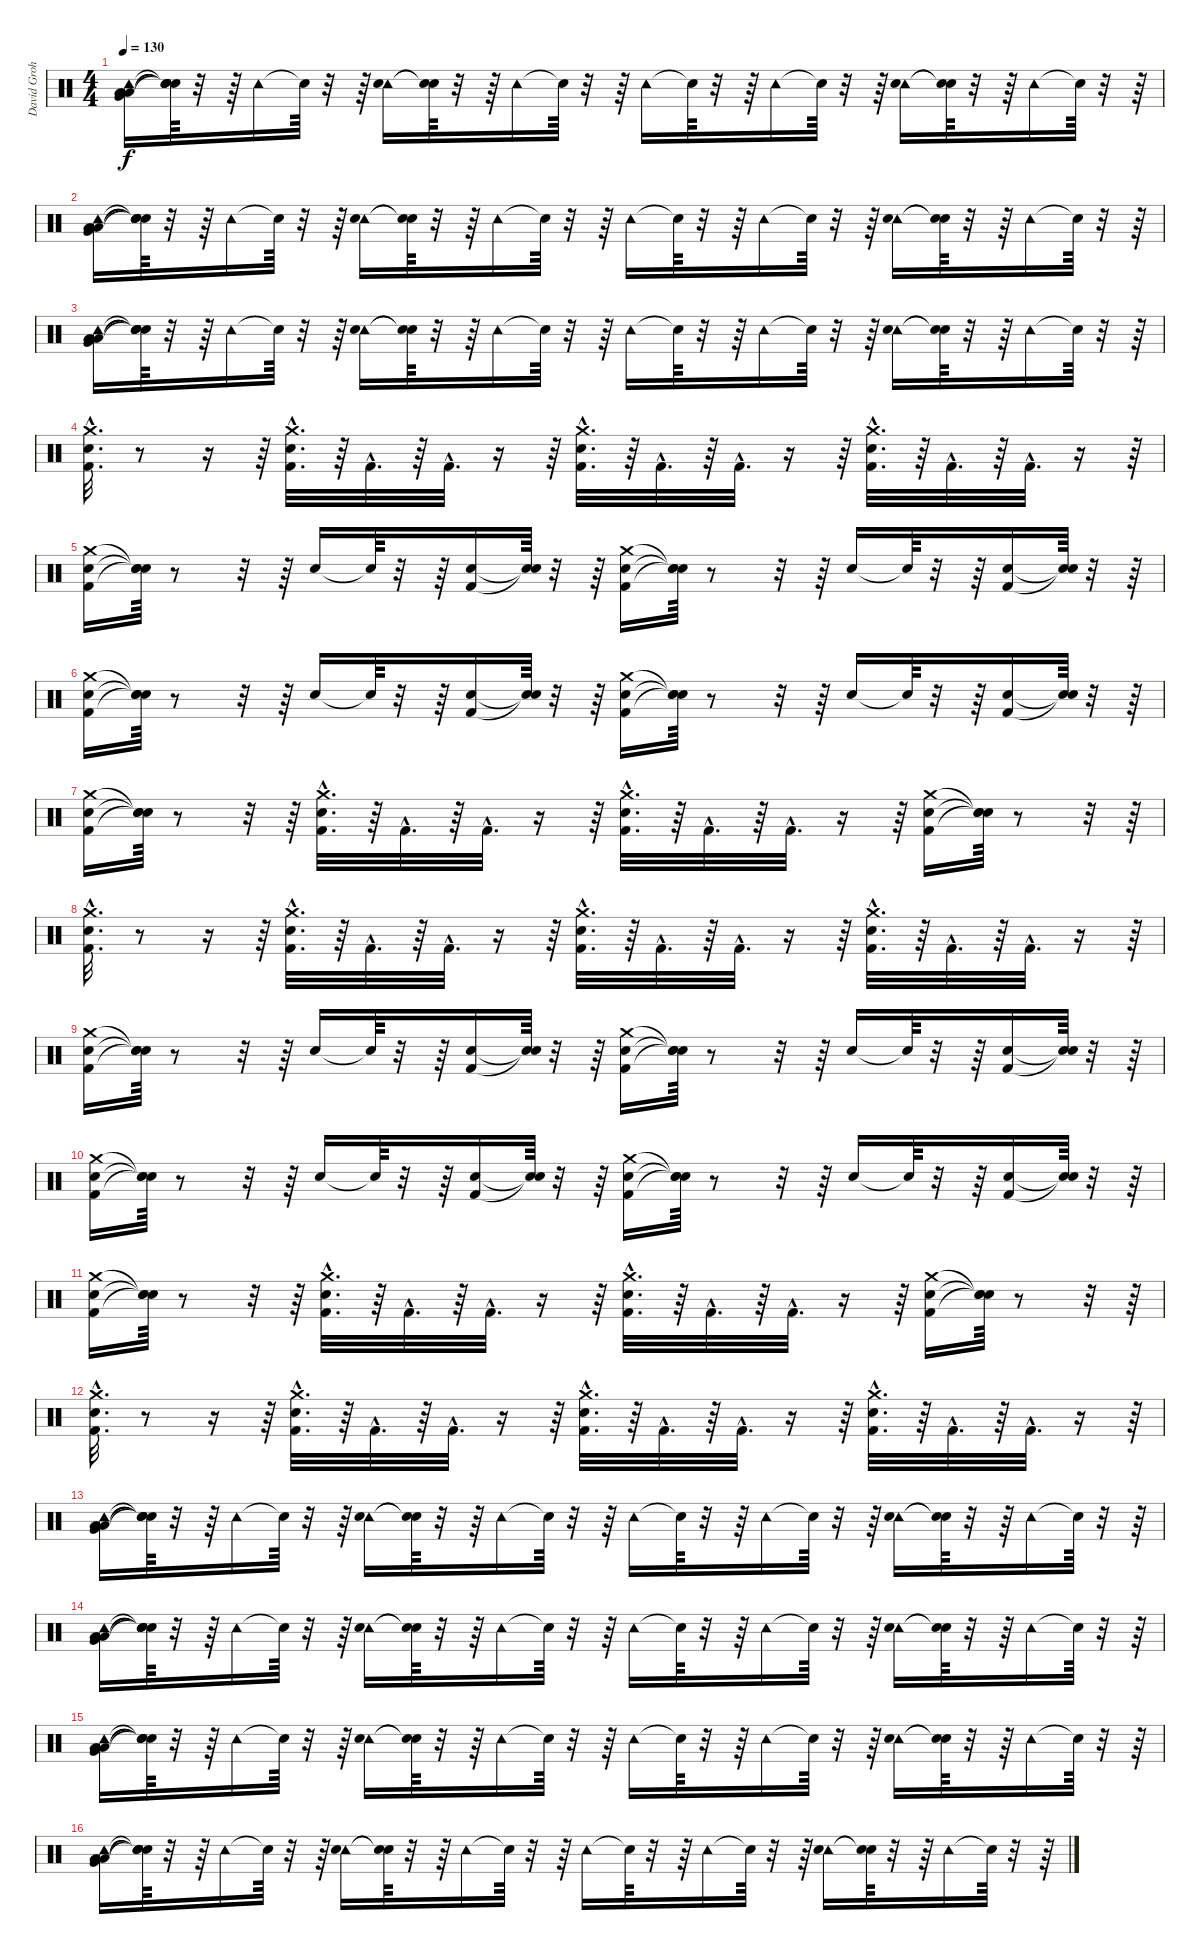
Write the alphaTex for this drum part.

\track ("David Grohl -Drums-" "David Groh") {instrument percussion}
\staff {score}
\articulation defaults
\ts (4 4)
\tempo 130
\clef neutral
\ks c
("Low Floor Tom (hit)" "Very Low Tom (hit)" "Low Tom (hit)" "Tambourine (hit)").16{dy f} ("Snare (hit)"{t} "Snare (hit)"{t} "Snare (hit)"{t} "Snare (hit)"{t}).64 r.32 r.64 "Tambourine (hit)".16 "Snare (hit)"{t}.64 r.32 r.64 ("Tambourine (hit)" "Electric Snare (hit)").16 ("Snare (hit)"{t} "Snare (hit)"{t}).64 r.32 r.64 "Tambourine (hit)".16 "Snare (hit)"{t}.64 r.32 r.64 "Tambourine (hit)".16 "Snare (hit)"{t}.64 r.32 r.64 "Tambourine (hit)".16 "Snare (hit)"{t}.64 r.32 r.64 ("Tambourine (hit)" "Electric Snare (hit)").16 ("Snare (hit)"{t} "Snare (hit)"{t}).64 r.32 r.64 "Tambourine (hit)".16 "Snare (hit)"{t}.64 r.32 r.64 |
("Tambourine (hit)" "Low Floor Tom (hit)" "Very Low Tom (hit)" "Low Tom (hit)").16 ("Snare (hit)"{t} "Snare (hit)"{t} "Snare (hit)"{t} "Snare (hit)"{t}).64 r.32 r.64 "Tambourine (hit)".16 "Snare (hit)"{t}.64 r.32 r.64 ("Tambourine (hit)" "Electric Snare (hit)").16 ("Snare (hit)"{t} "Snare (hit)"{t}).64 r.32 r.64 "Tambourine (hit)".16 "Snare (hit)"{t}.64 r.32 r.64 "Tambourine (hit)".16 "Snare (hit)"{t}.64 r.32 r.64 "Tambourine (hit)".16 "Snare (hit)"{t}.64 r.32 r.64 ("Tambourine (hit)" "Electric Snare (hit)").16 ("Snare (hit)"{t} "Snare (hit)"{t}).64 r.32 r.64 "Tambourine (hit)".16 "Snare (hit)"{t}.64 r.32 r.64 |
("Tambourine (hit)" "Low Floor Tom (hit)" "Very Low Tom (hit)" "Low Tom (hit)").16 ("Snare (hit)"{t} "Snare (hit)"{t} "Snare (hit)"{t} "Snare (hit)"{t}).64 r.32 r.64 "Tambourine (hit)".16 "Snare (hit)"{t}.64 r.32 r.64 ("Tambourine (hit)" "Electric Snare (hit)").16 ("Snare (hit)"{t} "Snare (hit)"{t}).64 r.32 r.64 "Tambourine (hit)".16 "Snare (hit)"{t}.64 r.32 r.64 "Tambourine (hit)".16 "Snare (hit)"{t}.64 r.32 r.64 "Tambourine (hit)".16 "Snare (hit)"{t}.64 r.32 r.64 ("Tambourine (hit)" "Electric Snare (hit)").16 ("Snare (hit)"{t} "Snare (hit)"{t}).64 r.32 r.64 "Tambourine (hit)".16 "Snare (hit)"{t}.64 r.32 r.64 |
("Snare (hit) 2"{hac} "Kick (hit) 2"{hac} "Crash medium (hit)"{hac}).32{d} r.8 r.16 r.64 ("Kick (hit) 2"{hac} "Snare (hit) 2"{hac} "Crash medium (hit)"{hac}).32{d} r.64 "Kick (hit) 2"{hac}.32{d} r.64 "Kick (hit) 2"{hac}.32{d} r.16 r.64 ("Snare (hit) 2"{hac} "Kick (hit) 2"{hac} "Crash medium (hit)"{hac}).32{d} r.64 "Kick (hit) 2"{hac}.32{d} r.64 "Kick (hit) 2"{hac}.32{d} r.16 r.64 ("Kick (hit) 2"{hac} "Snare (hit) 2"{hac} "Crash medium (hit)"{hac}).32{d} r.64 "Kick (hit) 2"{hac}.32{d} r.64 "Kick (hit) 2"{hac}.32{d} r.16 r.64 |
("Kick (hit) 2" "Snare (hit) 2" "Crash medium (hit)").16 ("Snare (hit)"{t} "Snare (hit)"{t} "Snare (hit)"{t}).64 r.8 r.32 r.64 "Snare (hit) 2".16 "Snare (hit)"{t}.64 r.32 r.64 ("Kick (hit) 2" "Snare (hit) 2").16 ("Snare (hit)"{t} "Snare (hit)"{t}).64 r.32 r.64 ("Snare (hit) 2" "Kick (hit) 2" "Crash medium (hit)").16 ("Snare (hit)"{t} "Snare (hit)"{t} "Snare (hit)"{t}).64 r.8 r.32 r.64 "Snare (hit) 2".16 "Snare (hit)"{t}.64 r.32 r.64 ("Snare (hit) 2" "Kick (hit) 2").16 ("Snare (hit)"{t} "Snare (hit)"{t}).64 r.32 r.64 |
("Kick (hit) 2" "Snare (hit) 2" "Crash medium (hit)").16 ("Snare (hit)"{t} "Snare (hit)"{t} "Snare (hit)"{t}).64 r.8 r.32 r.64 "Snare (hit) 2".16 "Snare (hit)"{t}.64 r.32 r.64 ("Kick (hit) 2" "Snare (hit) 2").16 ("Snare (hit)"{t} "Snare (hit)"{t}).64 r.32 r.64 ("Snare (hit) 2" "Kick (hit) 2" "Crash medium (hit)").16 ("Snare (hit)"{t} "Snare (hit)"{t} "Snare (hit)"{t}).64 r.8 r.32 r.64 "Snare (hit) 2".16 "Snare (hit)"{t}.64 r.32 r.64 ("Snare (hit) 2" "Kick (hit) 2").16 ("Snare (hit)"{t} "Snare (hit)"{t}).64 r.32 r.64 |
("Kick (hit) 2" "Snare (hit) 2" "Crash medium (hit)").16 ("Snare (hit)"{t} "Snare (hit)"{t} "Snare (hit)"{t}).64 r.8 r.32 r.64 ("Crash medium (hit)"{hac} "Snare (hit) 2"{hac} "Kick (hit) 2"{hac}).32{d} r.64 "Kick (hit) 2"{hac}.32{d} r.64 "Kick (hit) 2"{hac}.32{d} r.16 r.64 ("Kick (hit) 2"{hac} "Snare (hit) 2"{hac} "Crash medium (hit)"{hac}).32{d} r.64 "Kick (hit) 2"{hac}.32{d} r.64 "Kick (hit) 2"{hac}.32{d} r.16 r.64 ("Crash medium (hit)" "Snare (hit) 2" "Kick (hit) 2").16 ("Snare (hit)"{t} "Snare (hit)"{t} "Snare (hit)"{t}).64 r.8 r.32 r.64 |
("Snare (hit) 2"{hac} "Kick (hit) 2"{hac} "Crash medium (hit)"{hac}).32{d} r.8 r.16 r.64 ("Kick (hit) 2"{hac} "Snare (hit) 2"{hac} "Crash medium (hit)"{hac}).32{d} r.64 "Kick (hit) 2"{hac}.32{d} r.64 "Kick (hit) 2"{hac}.32{d} r.16 r.64 ("Snare (hit) 2"{hac} "Kick (hit) 2"{hac} "Crash medium (hit)"{hac}).32{d} r.64 "Kick (hit) 2"{hac}.32{d} r.64 "Kick (hit) 2"{hac}.32{d} r.16 r.64 ("Kick (hit) 2"{hac} "Snare (hit) 2"{hac} "Crash medium (hit)"{hac}).32{d} r.64 "Kick (hit) 2"{hac}.32{d} r.64 "Kick (hit) 2"{hac}.32{d} r.16 r.64 |
("Kick (hit) 2" "Snare (hit) 2" "Crash medium (hit)").16 ("Snare (hit)"{t} "Snare (hit)"{t} "Snare (hit)"{t}).64 r.8 r.32 r.64 "Snare (hit) 2".16 "Snare (hit)"{t}.64 r.32 r.64 ("Kick (hit) 2" "Snare (hit) 2").16 ("Snare (hit)"{t} "Snare (hit)"{t}).64 r.32 r.64 ("Snare (hit) 2" "Kick (hit) 2" "Crash medium (hit)").16 ("Snare (hit)"{t} "Snare (hit)"{t} "Snare (hit)"{t}).64 r.8 r.32 r.64 "Snare (hit) 2".16 "Snare (hit)"{t}.64 r.32 r.64 ("Snare (hit) 2" "Kick (hit) 2").16 ("Snare (hit)"{t} "Snare (hit)"{t}).64 r.32 r.64 |
("Kick (hit) 2" "Snare (hit) 2" "Crash medium (hit)").16 ("Snare (hit)"{t} "Snare (hit)"{t} "Snare (hit)"{t}).64 r.8 r.32 r.64 "Snare (hit) 2".16 "Snare (hit)"{t}.64 r.32 r.64 ("Kick (hit) 2" "Snare (hit) 2").16 ("Snare (hit)"{t} "Snare (hit)"{t}).64 r.32 r.64 ("Snare (hit) 2" "Kick (hit) 2" "Crash medium (hit)").16 ("Snare (hit)"{t} "Snare (hit)"{t} "Snare (hit)"{t}).64 r.8 r.32 r.64 "Snare (hit) 2".16 "Snare (hit)"{t}.64 r.32 r.64 ("Snare (hit) 2" "Kick (hit) 2").16 ("Snare (hit)"{t} "Snare (hit)"{t}).64 r.32 r.64 |
("Kick (hit) 2" "Snare (hit) 2" "Crash medium (hit)").16 ("Snare (hit)"{t} "Snare (hit)"{t} "Snare (hit)"{t}).64 r.8 r.32 r.64 ("Crash medium (hit)"{hac} "Snare (hit) 2"{hac} "Kick (hit) 2"{hac}).32{d} r.64 "Kick (hit) 2"{hac}.32{d} r.64 "Kick (hit) 2"{hac}.32{d} r.16 r.64 ("Kick (hit) 2"{hac} "Snare (hit) 2"{hac} "Crash medium (hit)"{hac}).32{d} r.64 "Kick (hit) 2"{hac}.32{d} r.64 "Kick (hit) 2"{hac}.32{d} r.16 r.64 ("Crash medium (hit)" "Snare (hit) 2" "Kick (hit) 2").16 ("Snare (hit)"{t} "Snare (hit)"{t} "Snare (hit)"{t}).64 r.8 r.32 r.64 |
("Snare (hit) 2"{hac} "Kick (hit) 2"{hac} "Crash medium (hit)"{hac}).32{d} r.8 r.16 r.64 ("Kick (hit) 2"{hac} "Snare (hit) 2"{hac} "Crash medium (hit)"{hac}).32{d} r.64 "Kick (hit) 2"{hac}.32{d} r.64 "Kick (hit) 2"{hac}.32{d} r.16 r.64 ("Snare (hit) 2"{hac} "Kick (hit) 2"{hac} "Crash medium (hit)"{hac}).32{d} r.64 "Kick (hit) 2"{hac}.32{d} r.64 "Kick (hit) 2"{hac}.32{d} r.16 r.64 ("Kick (hit) 2"{hac} "Snare (hit) 2"{hac} "Crash medium (hit)"{hac}).32{d} r.64 "Kick (hit) 2"{hac}.32{d} r.64 "Kick (hit) 2"{hac}.32{d} r.16 r.64 |
("Low Floor Tom (hit)" "Very Low Tom (hit)" "Low Tom (hit)" "Tambourine (hit)").16 ("Snare (hit)"{t} "Snare (hit)"{t} "Snare (hit)"{t} "Snare (hit)"{t}).64 r.32 r.64 "Tambourine (hit)".16 "Snare (hit)"{t}.64 r.32 r.64 ("Tambourine (hit)" "Electric Snare (hit)").16 ("Snare (hit)"{t} "Snare (hit)"{t}).64 r.32 r.64 "Tambourine (hit)".16 "Snare (hit)"{t}.64 r.32 r.64 "Tambourine (hit)".16 "Snare (hit)"{t}.64 r.32 r.64 "Tambourine (hit)".16 "Snare (hit)"{t}.64 r.32 r.64 ("Tambourine (hit)" "Electric Snare (hit)").16 ("Snare (hit)"{t} "Snare (hit)"{t}).64 r.32 r.64 "Tambourine (hit)".16 "Snare (hit)"{t}.64 r.32 r.64 |
("Tambourine (hit)" "Low Floor Tom (hit)" "Very Low Tom (hit)" "Low Tom (hit)").16 ("Snare (hit)"{t} "Snare (hit)"{t} "Snare (hit)"{t} "Snare (hit)"{t}).64 r.32 r.64 "Tambourine (hit)".16 "Snare (hit)"{t}.64 r.32 r.64 ("Tambourine (hit)" "Electric Snare (hit)").16 ("Snare (hit)"{t} "Snare (hit)"{t}).64 r.32 r.64 "Tambourine (hit)".16 "Snare (hit)"{t}.64 r.32 r.64 "Tambourine (hit)".16 "Snare (hit)"{t}.64 r.32 r.64 "Tambourine (hit)".16 "Snare (hit)"{t}.64 r.32 r.64 ("Tambourine (hit)" "Electric Snare (hit)").16 ("Snare (hit)"{t} "Snare (hit)"{t}).64 r.32 r.64 "Tambourine (hit)".16 "Snare (hit)"{t}.64 r.32 r.64 |
("Tambourine (hit)" "Low Floor Tom (hit)" "Very Low Tom (hit)" "Low Tom (hit)").16 ("Snare (hit)"{t} "Snare (hit)"{t} "Snare (hit)"{t} "Snare (hit)"{t}).64 r.32 r.64 "Tambourine (hit)".16 "Snare (hit)"{t}.64 r.32 r.64 ("Tambourine (hit)" "Electric Snare (hit)").16 ("Snare (hit)"{t} "Snare (hit)"{t}).64 r.32 r.64 "Tambourine (hit)".16 "Snare (hit)"{t}.64 r.32 r.64 "Tambourine (hit)".16 "Snare (hit)"{t}.64 r.32 r.64 "Tambourine (hit)".16 "Snare (hit)"{t}.64 r.32 r.64 ("Tambourine (hit)" "Electric Snare (hit)").16 ("Snare (hit)"{t} "Snare (hit)"{t}).64 r.32 r.64 "Tambourine (hit)".16 "Snare (hit)"{t}.64 r.32 r.64 |
("Tambourine (hit)" "Low Floor Tom (hit)" "Very Low Tom (hit)" "Low Tom (hit)").16 ("Snare (hit)"{t} "Snare (hit)"{t} "Snare (hit)"{t} "Snare (hit)"{t}).64 r.32 r.64 "Tambourine (hit)".16 "Snare (hit)"{t}.64 r.32 r.64 ("Tambourine (hit)" "Electric Snare (hit)").16 ("Snare (hit)"{t} "Snare (hit)"{t}).64 r.32 r.64 "Tambourine (hit)".16 "Snare (hit)"{t}.64 r.32 r.64 "Tambourine (hit)".16 "Snare (hit)"{t}.64 r.32 r.64 "Tambourine (hit)".16 "Snare (hit)"{t}.64 r.32 r.64 ("Tambourine (hit)" "Electric Snare (hit)").16 ("Snare (hit)"{t} "Snare (hit)"{t}).64 r.32 r.64 "Tambourine (hit)".16 "Snare (hit)"{t}.64 r.32 r.64
